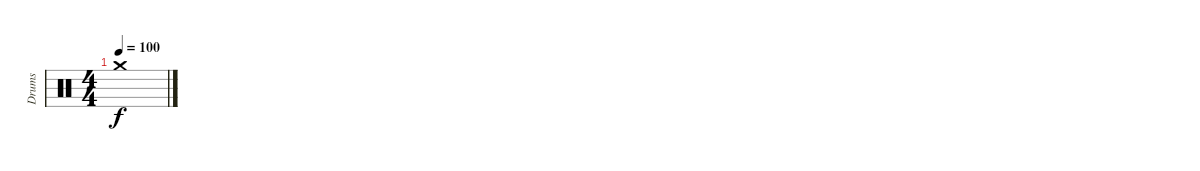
\track ("Drums" "Drums") {instrument percussion}
\staff {score}
\articulation defaults
\ts (4 4)
\tempo 100
\clef neutral
\ks c "Crash medium (hit)".1{dy f}
